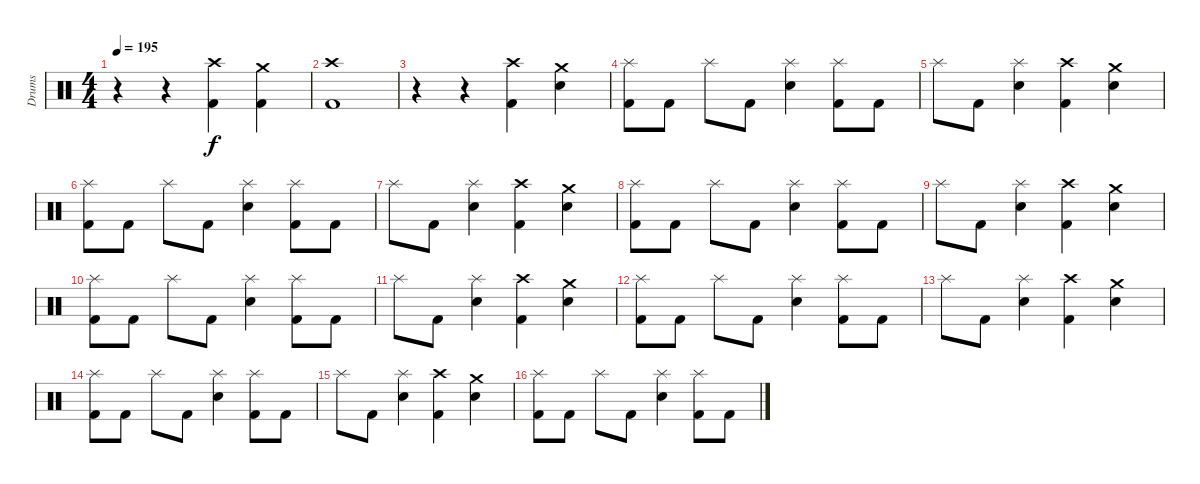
\track ("Drums" "Drums") {instrument percussion}
\staff {score}
\articulation defaults
\ts (4 4)
\tempo 195
\clef neutral
\ks c
r.4{dy f} r.4 ("Crash high (hit)" "Kick (hit) 2").4 ("Crash medium (hit)" "Kick (hit) 2").4 |
("Crash high (hit)" "Kick (hit) 2").1 |
r.4 r.4 ("Crash high (hit)" "Kick (hit) 2").4 ("Crash medium (hit)" "Snare (hit) 2").4 |
("Splash (hit)" "Kick (hit) 2").8 "Kick (hit) 2".8 "Splash (hit)".8 "Kick (hit) 2".8 ("Splash (hit)" "Snare (hit) 2").4 ("Splash (hit)" "Kick (hit) 2").8 "Kick (hit) 2".8 |
"Splash (hit)".8 "Kick (hit) 2".8 ("Splash (hit)" "Snare (hit) 2").4 ("Crash high (hit)" "Kick (hit) 2").4 ("Crash medium (hit)" "Snare (hit) 2").4 |
("Splash (hit)" "Kick (hit) 2").8 "Kick (hit) 2".8 "Splash (hit)".8 "Kick (hit) 2".8 ("Splash (hit)" "Snare (hit) 2").4 ("Splash (hit)" "Kick (hit) 2").8 "Kick (hit) 2".8 |
"Splash (hit)".8 "Kick (hit) 2".8 ("Splash (hit)" "Snare (hit) 2").4 ("Crash high (hit)" "Kick (hit) 2").4 ("Crash medium (hit)" "Snare (hit) 2").4 |
("Splash (hit)" "Kick (hit) 2").8 "Kick (hit) 2".8 "Splash (hit)".8 "Kick (hit) 2".8 ("Splash (hit)" "Snare (hit) 2").4 ("Splash (hit)" "Kick (hit) 2").8 "Kick (hit) 2".8 |
"Splash (hit)".8 "Kick (hit) 2".8 ("Splash (hit)" "Snare (hit) 2").4 ("Crash high (hit)" "Kick (hit) 2").4 ("Crash medium (hit)" "Snare (hit) 2").4 |
("Splash (hit)" "Kick (hit) 2").8 "Kick (hit) 2".8 "Splash (hit)".8 "Kick (hit) 2".8 ("Splash (hit)" "Snare (hit) 2").4 ("Splash (hit)" "Kick (hit) 2").8 "Kick (hit) 2".8 |
"Splash (hit)".8 "Kick (hit) 2".8 ("Splash (hit)" "Snare (hit) 2").4 ("Crash high (hit)" "Kick (hit) 2").4 ("Crash medium (hit)" "Snare (hit) 2").4 |
("Splash (hit)" "Kick (hit) 2").8 "Kick (hit) 2".8 "Splash (hit)".8 "Kick (hit) 2".8 ("Splash (hit)" "Snare (hit) 2").4 ("Splash (hit)" "Kick (hit) 2").8 "Kick (hit) 2".8 |
"Splash (hit)".8 "Kick (hit) 2".8 ("Splash (hit)" "Snare (hit) 2").4 ("Crash high (hit)" "Kick (hit) 2").4 ("Crash medium (hit)" "Snare (hit) 2").4 |
("Splash (hit)" "Kick (hit) 2").8 "Kick (hit) 2".8 "Splash (hit)".8 "Kick (hit) 2".8 ("Splash (hit)" "Snare (hit) 2").4 ("Splash (hit)" "Kick (hit) 2").8 "Kick (hit) 2".8 |
"Splash (hit)".8 "Kick (hit) 2".8 ("Splash (hit)" "Snare (hit) 2").4 ("Crash high (hit)" "Kick (hit) 2").4 ("Crash medium (hit)" "Snare (hit) 2").4 |
("Splash (hit)" "Kick (hit) 2").8 "Kick (hit) 2".8 "Splash (hit)".8 "Kick (hit) 2".8 ("Splash (hit)" "Snare (hit) 2").4 ("Splash (hit)" "Kick (hit) 2").8 "Kick (hit) 2".8
